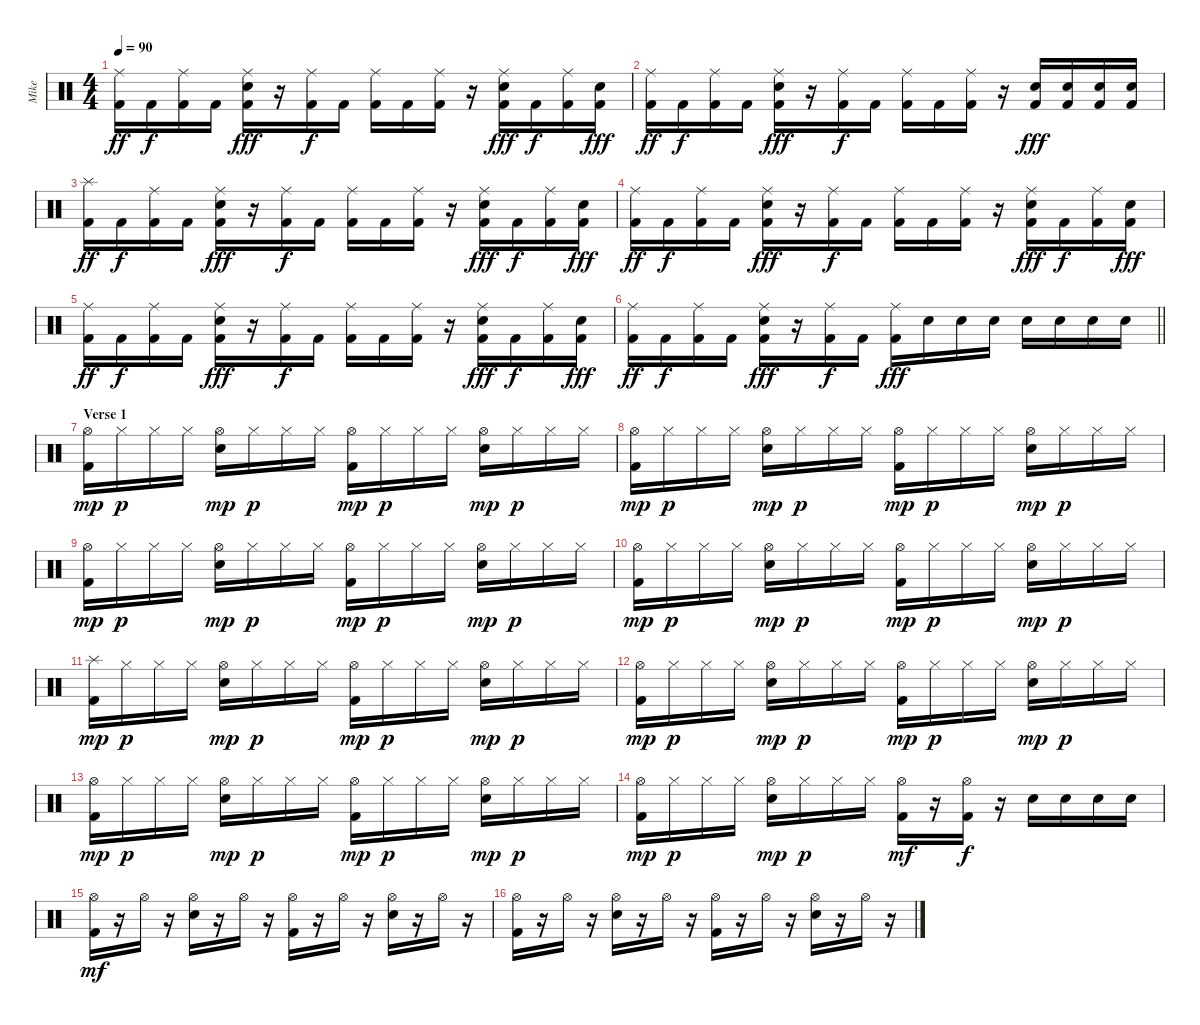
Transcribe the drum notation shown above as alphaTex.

\track ("Mike" "Mike") {instrument percussion}
\staff {score}
\articulation defaults
\ts (4 4)
\tempo 90
\clef neutral
\ks c
("Ride (middle)" "Kick (hit) 2").16{dy ff} "Kick (hit) 2".16{dy f} ("Ride (middle)" "Kick (hit) 2").16 "Kick (hit) 2".16 ("Ride (middle)" "Snare (hit) 2" "Kick (hit) 2").16{dy fff} r.16 ("Ride (middle)" "Kick (hit) 2").16{dy f} "Kick (hit) 2".16 ("Ride (middle)" "Kick (hit) 2").16 "Kick (hit) 2".16 ("Ride (middle)" "Kick (hit) 2").16 r.16 ("Ride (middle)" "Snare (hit) 2" "Kick (hit) 2").16{dy fff} "Kick (hit) 2".16{dy f} ("Ride (middle)" "Kick (hit) 2").16 ("Snare (hit) 2" "Kick (hit) 2").16{dy fff} |
("Ride (middle)" "Kick (hit) 2").16{dy ff} "Kick (hit) 2".16{dy f} ("Ride (middle)" "Kick (hit) 2").16 "Kick (hit) 2".16 ("Ride (middle)" "Snare (hit) 2" "Kick (hit) 2").16{dy fff} r.16 ("Ride (middle)" "Kick (hit) 2").16{dy f} "Kick (hit) 2".16 ("Ride (middle)" "Kick (hit) 2").16 "Kick (hit) 2".16 ("Ride (middle)" "Kick (hit) 2").16 r.16 ("Snare (hit) 2" "Kick (hit) 2").16{dy fff} ("Snare (hit) 2" "Kick (hit) 2").16 ("Snare (hit) 2" "Kick (hit) 2").16 ("Snare (hit) 2" "Kick (hit) 2").16 |
("Splash (hit)" "Kick (hit) 2").16{dy ff} "Kick (hit) 2".16{dy f} ("Ride (middle)" "Kick (hit) 2").16 "Kick (hit) 2".16 ("Ride (middle)" "Snare (hit) 2" "Kick (hit) 2").16{dy fff} r.16 ("Ride (middle)" "Kick (hit) 2").16{dy f} "Kick (hit) 2".16 ("Ride (middle)" "Kick (hit) 2").16 "Kick (hit) 2".16 ("Ride (middle)" "Kick (hit) 2").16 r.16 ("Ride (middle)" "Snare (hit) 2" "Kick (hit) 2").16{dy fff} "Kick (hit) 2".16{dy f} ("Ride (middle)" "Kick (hit) 2").16 ("Snare (hit) 2" "Kick (hit) 2").16{dy fff} |
("Ride (middle)" "Kick (hit) 2").16{dy ff} "Kick (hit) 2".16{dy f} ("Ride (middle)" "Kick (hit) 2").16 "Kick (hit) 2".16 ("Ride (middle)" "Snare (hit) 2" "Kick (hit) 2").16{dy fff} r.16 ("Ride (middle)" "Kick (hit) 2").16{dy f} "Kick (hit) 2".16 ("Ride (middle)" "Kick (hit) 2").16 "Kick (hit) 2".16 ("Ride (middle)" "Kick (hit) 2").16 r.16 ("Ride (middle)" "Snare (hit) 2" "Kick (hit) 2").16{dy fff} "Kick (hit) 2".16{dy f} ("Ride (middle)" "Kick (hit) 2").16 ("Snare (hit) 2" "Kick (hit) 2").16{dy fff} |
("Ride (middle)" "Kick (hit) 2").16{dy ff} "Kick (hit) 2".16{dy f} ("Ride (middle)" "Kick (hit) 2").16 "Kick (hit) 2".16 ("Ride (middle)" "Snare (hit) 2" "Kick (hit) 2").16{dy fff} r.16 ("Ride (middle)" "Kick (hit) 2").16{dy f} "Kick (hit) 2".16 ("Ride (middle)" "Kick (hit) 2").16 "Kick (hit) 2".16 ("Ride (middle)" "Kick (hit) 2").16 r.16 ("Ride (middle)" "Snare (hit) 2" "Kick (hit) 2").16{dy fff} "Kick (hit) 2".16{dy f} ("Ride (middle)" "Kick (hit) 2").16 ("Snare (hit) 2" "Kick (hit) 2").16{dy fff} |
\barLineRight lightlight
("Ride (middle)" "Kick (hit) 2").16{dy ff} "Kick (hit) 2".16{dy f} ("Ride (middle)" "Kick (hit) 2").16 "Kick (hit) 2".16 ("Ride (middle)" "Snare (hit) 2" "Kick (hit) 2").16{dy fff} r.16 ("Ride (middle)" "Kick (hit) 2").16{dy f} "Kick (hit) 2".16 ("Ride (middle)" "Kick (hit) 2").16{dy fff} "Snare (hit) 2".16 "Snare (hit) 2".16 "Snare (hit) 2".16 "Snare (hit) 2".16 "Snare (hit) 2".16 "Snare (hit) 2".16 "Snare (hit) 2".16 |
\section ("" "Verse 1")
("Hi-Hat (open)" "Kick (hit) 2").16{dy mp} "Hi-Hat (closed)".16{dy p} "Hi-Hat (closed)".16 "Hi-Hat (closed)".16 ("Hi-Hat (open)" "Snare (hit) 2").16{dy mp} "Hi-Hat (closed)".16{dy p} "Hi-Hat (closed)".16 "Hi-Hat (closed)".16 ("Hi-Hat (open)" "Kick (hit) 2").16{dy mp} "Hi-Hat (closed)".16{dy p} "Hi-Hat (closed)".16 "Hi-Hat (closed)".16 ("Hi-Hat (open)" "Snare (hit) 2").16{dy mp} "Hi-Hat (closed)".16{dy p} "Hi-Hat (closed)".16 "Hi-Hat (closed)".16 |
("Hi-Hat (open)" "Kick (hit) 2").16{dy mp} "Hi-Hat (closed)".16{dy p} "Hi-Hat (closed)".16 "Hi-Hat (closed)".16 ("Hi-Hat (open)" "Snare (hit) 2").16{dy mp} "Hi-Hat (closed)".16{dy p} "Hi-Hat (closed)".16 "Hi-Hat (closed)".16 ("Hi-Hat (open)" "Kick (hit) 2").16{dy mp} "Hi-Hat (closed)".16{dy p} "Hi-Hat (closed)".16 "Hi-Hat (closed)".16 ("Hi-Hat (open)" "Snare (hit) 2").16{dy mp} "Hi-Hat (closed)".16{dy p} "Hi-Hat (closed)".16 "Hi-Hat (closed)".16 |
("Hi-Hat (open)" "Kick (hit) 2").16{dy mp} "Hi-Hat (closed)".16{dy p} "Hi-Hat (closed)".16 "Hi-Hat (closed)".16 ("Hi-Hat (open)" "Snare (hit) 2").16{dy mp} "Hi-Hat (closed)".16{dy p} "Hi-Hat (closed)".16 "Hi-Hat (closed)".16 ("Hi-Hat (open)" "Kick (hit) 2").16{dy mp} "Hi-Hat (closed)".16{dy p} "Hi-Hat (closed)".16 "Hi-Hat (closed)".16 ("Hi-Hat (open)" "Snare (hit) 2").16{dy mp} "Hi-Hat (closed)".16{dy p} "Hi-Hat (closed)".16 "Hi-Hat (closed)".16 |
("Hi-Hat (open)" "Kick (hit) 2").16{dy mp} "Hi-Hat (closed)".16{dy p} "Hi-Hat (closed)".16 "Hi-Hat (closed)".16 ("Hi-Hat (open)" "Snare (hit) 2").16{dy mp} "Hi-Hat (closed)".16{dy p} "Hi-Hat (closed)".16 "Hi-Hat (closed)".16 ("Hi-Hat (open)" "Kick (hit) 2").16{dy mp} "Hi-Hat (closed)".16{dy p} "Hi-Hat (closed)".16 "Hi-Hat (closed)".16 ("Hi-Hat (open)" "Snare (hit) 2").16{dy mp} "Hi-Hat (closed)".16{dy p} "Hi-Hat (closed)".16 "Hi-Hat (closed)".16 |
("Splash (hit)" "Kick (hit) 2").16{dy mp} "Hi-Hat (closed)".16{dy p} "Hi-Hat (closed)".16 "Hi-Hat (closed)".16 ("Hi-Hat (open)" "Snare (hit) 2").16{dy mp} "Hi-Hat (closed)".16{dy p} "Hi-Hat (closed)".16 "Hi-Hat (closed)".16 ("Hi-Hat (open)" "Kick (hit) 2").16{dy mp} "Hi-Hat (closed)".16{dy p} "Hi-Hat (closed)".16 "Hi-Hat (closed)".16 ("Hi-Hat (open)" "Snare (hit) 2").16{dy mp} "Hi-Hat (closed)".16{dy p} "Hi-Hat (closed)".16 "Hi-Hat (closed)".16 |
("Hi-Hat (open)" "Kick (hit) 2").16{dy mp} "Hi-Hat (closed)".16{dy p} "Hi-Hat (closed)".16 "Hi-Hat (closed)".16 ("Hi-Hat (open)" "Snare (hit) 2").16{dy mp} "Hi-Hat (closed)".16{dy p} "Hi-Hat (closed)".16 "Hi-Hat (closed)".16 ("Hi-Hat (open)" "Kick (hit) 2").16{dy mp} "Hi-Hat (closed)".16{dy p} "Hi-Hat (closed)".16 "Hi-Hat (closed)".16 ("Hi-Hat (open)" "Snare (hit) 2").16{dy mp} "Hi-Hat (closed)".16{dy p} "Hi-Hat (closed)".16 "Hi-Hat (closed)".16 |
("Hi-Hat (open)" "Kick (hit) 2").16{dy mp} "Hi-Hat (closed)".16{dy p} "Hi-Hat (closed)".16 "Hi-Hat (closed)".16 ("Hi-Hat (open)" "Snare (hit) 2").16{dy mp} "Hi-Hat (closed)".16{dy p} "Hi-Hat (closed)".16 "Hi-Hat (closed)".16 ("Hi-Hat (open)" "Kick (hit) 2").16{dy mp} "Hi-Hat (closed)".16{dy p} "Hi-Hat (closed)".16 "Hi-Hat (closed)".16 ("Hi-Hat (open)" "Snare (hit) 2").16{dy mp} "Hi-Hat (closed)".16{dy p} "Hi-Hat (closed)".16 "Hi-Hat (closed)".16 |
("Hi-Hat (open)" "Kick (hit) 2").16{dy mp} "Hi-Hat (closed)".16{dy p} "Hi-Hat (closed)".16 "Hi-Hat (closed)".16 ("Hi-Hat (open)" "Snare (hit) 2").16{dy mp} "Hi-Hat (closed)".16{dy p} "Hi-Hat (closed)".16 "Hi-Hat (closed)".16 ("Hi-Hat (open)" "Kick (hit) 2").16{dy mf} r.16 ("Hi-Hat (open)" "Kick (hit) 2").16{dy f} r.16 "Snare (hit) 2".16 "Snare (hit) 2".16 "Snare (hit) 2".16 "Snare (hit) 2".16 |
("Hi-Hat (open)" "Kick (hit) 2").16{dy mf} r.16 "Hi-Hat (open)".16 r.16 ("Hi-Hat (open)" "Snare (hit) 2").16 r.16 "Hi-Hat (open)".16 r.16 ("Hi-Hat (open)" "Kick (hit) 2").16 r.16 "Hi-Hat (open)".16 r.16 ("Hi-Hat (open)" "Snare (hit) 2").16 r.16 "Hi-Hat (open)".16 r.16 |
("Hi-Hat (open)" "Kick (hit) 2").16 r.16 "Hi-Hat (open)".16 r.16 ("Hi-Hat (open)" "Snare (hit) 2").16 r.16 "Hi-Hat (open)".16 r.16 ("Hi-Hat (open)" "Kick (hit) 2").16 r.16 "Hi-Hat (open)".16 r.16 ("Hi-Hat (open)" "Snare (hit) 2").16 r.16 "Hi-Hat (open)".16 r.16
